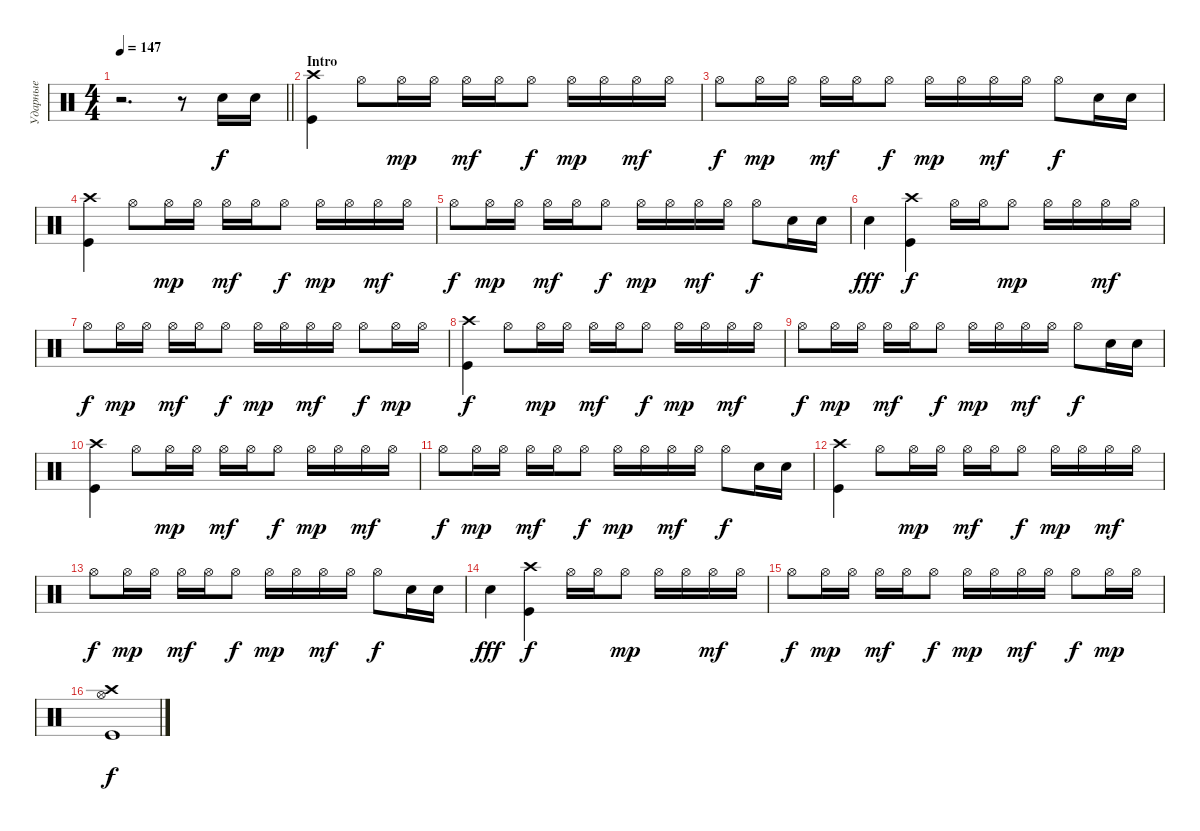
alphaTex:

\track ("Ударные" "Ударные") {instrument percussion}
\staff {score}
\articulation defaults
\ts (4 4)
\tempo 147
\clef neutral
\barLineRight lightlight
\ks c
r.2{d dy f} r.8 "Snare (hit) 2".16 "Snare (hit) 2".16 |
\section ("" "Intro")
("Kick (hit)" "Crash high (hit)").4 "Hi-Hat (open)".8 "Hi-Hat (open)".16{dy mp} "Hi-Hat (open)".16 "Hi-Hat (open)".16{dy mf} "Hi-Hat (open)".16 "Hi-Hat (open)".8{dy f} "Hi-Hat (open)".16{dy mp} "Hi-Hat (open)".16 "Hi-Hat (open)".16{dy mf} "Hi-Hat (open)".16 |
"Hi-Hat (open)".8{dy f} "Hi-Hat (open)".16{dy mp} "Hi-Hat (open)".16 "Hi-Hat (open)".16{dy mf} "Hi-Hat (open)".16 "Hi-Hat (open)".8{dy f} "Hi-Hat (open)".16{dy mp} "Hi-Hat (open)".16 "Hi-Hat (open)".16{dy mf} "Hi-Hat (open)".16 "Hi-Hat (open)".8{dy f} "Snare (hit) 2".16 "Snare (hit) 2".16 |
("Kick (hit)" "Crash high (hit)").4 "Hi-Hat (open)".8 "Hi-Hat (open)".16{dy mp} "Hi-Hat (open)".16 "Hi-Hat (open)".16{dy mf} "Hi-Hat (open)".16 "Hi-Hat (open)".8{dy f} "Hi-Hat (open)".16{dy mp} "Hi-Hat (open)".16 "Hi-Hat (open)".16{dy mf} "Hi-Hat (open)".16 |
"Hi-Hat (open)".8{dy f} "Hi-Hat (open)".16{dy mp} "Hi-Hat (open)".16 "Hi-Hat (open)".16{dy mf} "Hi-Hat (open)".16 "Hi-Hat (open)".8{dy f} "Hi-Hat (open)".16{dy mp} "Hi-Hat (open)".16 "Hi-Hat (open)".16{dy mf} "Hi-Hat (open)".16 "Hi-Hat (open)".8{dy f} "Snare (hit) 2".16 "Snare (hit) 2".16 |
"Snare (hit) 2".4{dy fff} ("Kick (hit)" "Crash high (hit)").4{dy f} "Hi-Hat (open)".16 "Hi-Hat (open)".16 "Hi-Hat (open)".8{dy mp} "Hi-Hat (open)".16 "Hi-Hat (open)".16 "Hi-Hat (open)".16{dy mf} "Hi-Hat (open)".16 |
"Hi-Hat (open)".8{dy f} "Hi-Hat (open)".16{dy mp} "Hi-Hat (open)".16 "Hi-Hat (open)".16{dy mf} "Hi-Hat (open)".16 "Hi-Hat (open)".8{dy f} "Hi-Hat (open)".16{dy mp} "Hi-Hat (open)".16 "Hi-Hat (open)".16{dy mf} "Hi-Hat (open)".16 "Hi-Hat (open)".8{dy f} "Hi-Hat (open)".16{dy mp} "Hi-Hat (open)".16 |
("Kick (hit)" "Crash high (hit)").4{dy f} "Hi-Hat (open)".8 "Hi-Hat (open)".16{dy mp} "Hi-Hat (open)".16 "Hi-Hat (open)".16{dy mf} "Hi-Hat (open)".16 "Hi-Hat (open)".8{dy f} "Hi-Hat (open)".16{dy mp} "Hi-Hat (open)".16 "Hi-Hat (open)".16{dy mf} "Hi-Hat (open)".16 |
"Hi-Hat (open)".8{dy f} "Hi-Hat (open)".16{dy mp} "Hi-Hat (open)".16 "Hi-Hat (open)".16{dy mf} "Hi-Hat (open)".16 "Hi-Hat (open)".8{dy f} "Hi-Hat (open)".16{dy mp} "Hi-Hat (open)".16 "Hi-Hat (open)".16{dy mf} "Hi-Hat (open)".16 "Hi-Hat (open)".8{dy f} "Snare (hit) 2".16 "Snare (hit) 2".16 |
("Kick (hit)" "Crash high (hit)").4 "Hi-Hat (open)".8 "Hi-Hat (open)".16{dy mp} "Hi-Hat (open)".16 "Hi-Hat (open)".16{dy mf} "Hi-Hat (open)".16 "Hi-Hat (open)".8{dy f} "Hi-Hat (open)".16{dy mp} "Hi-Hat (open)".16 "Hi-Hat (open)".16{dy mf} "Hi-Hat (open)".16 |
"Hi-Hat (open)".8{dy f} "Hi-Hat (open)".16{dy mp} "Hi-Hat (open)".16 "Hi-Hat (open)".16{dy mf} "Hi-Hat (open)".16 "Hi-Hat (open)".8{dy f} "Hi-Hat (open)".16{dy mp} "Hi-Hat (open)".16 "Hi-Hat (open)".16{dy mf} "Hi-Hat (open)".16 "Hi-Hat (open)".8{dy f} "Snare (hit) 2".16 "Snare (hit) 2".16 |
("Kick (hit)" "Crash high (hit)").4 "Hi-Hat (open)".8 "Hi-Hat (open)".16{dy mp} "Hi-Hat (open)".16 "Hi-Hat (open)".16{dy mf} "Hi-Hat (open)".16 "Hi-Hat (open)".8{dy f} "Hi-Hat (open)".16{dy mp} "Hi-Hat (open)".16 "Hi-Hat (open)".16{dy mf} "Hi-Hat (open)".16 |
"Hi-Hat (open)".8{dy f} "Hi-Hat (open)".16{dy mp} "Hi-Hat (open)".16 "Hi-Hat (open)".16{dy mf} "Hi-Hat (open)".16 "Hi-Hat (open)".8{dy f} "Hi-Hat (open)".16{dy mp} "Hi-Hat (open)".16 "Hi-Hat (open)".16{dy mf} "Hi-Hat (open)".16 "Hi-Hat (open)".8{dy f} "Snare (hit) 2".16 "Snare (hit) 2".16 |
"Snare (hit) 2".4{dy fff} ("Kick (hit)" "Crash high (hit)").4{dy f} "Hi-Hat (open)".16 "Hi-Hat (open)".16 "Hi-Hat (open)".8{dy mp} "Hi-Hat (open)".16 "Hi-Hat (open)".16 "Hi-Hat (open)".16{dy mf} "Hi-Hat (open)".16 |
"Hi-Hat (open)".8{dy f} "Hi-Hat (open)".16{dy mp} "Hi-Hat (open)".16 "Hi-Hat (open)".16{dy mf} "Hi-Hat (open)".16 "Hi-Hat (open)".8{dy f} "Hi-Hat (open)".16{dy mp} "Hi-Hat (open)".16 "Hi-Hat (open)".16{dy mf} "Hi-Hat (open)".16 "Hi-Hat (open)".8{dy f} "Hi-Hat (open)".16{dy mp} "Hi-Hat (open)".16 |
("Kick (hit)" "Crash high (hit)" "Hi-Hat (open)").1{dy f}
